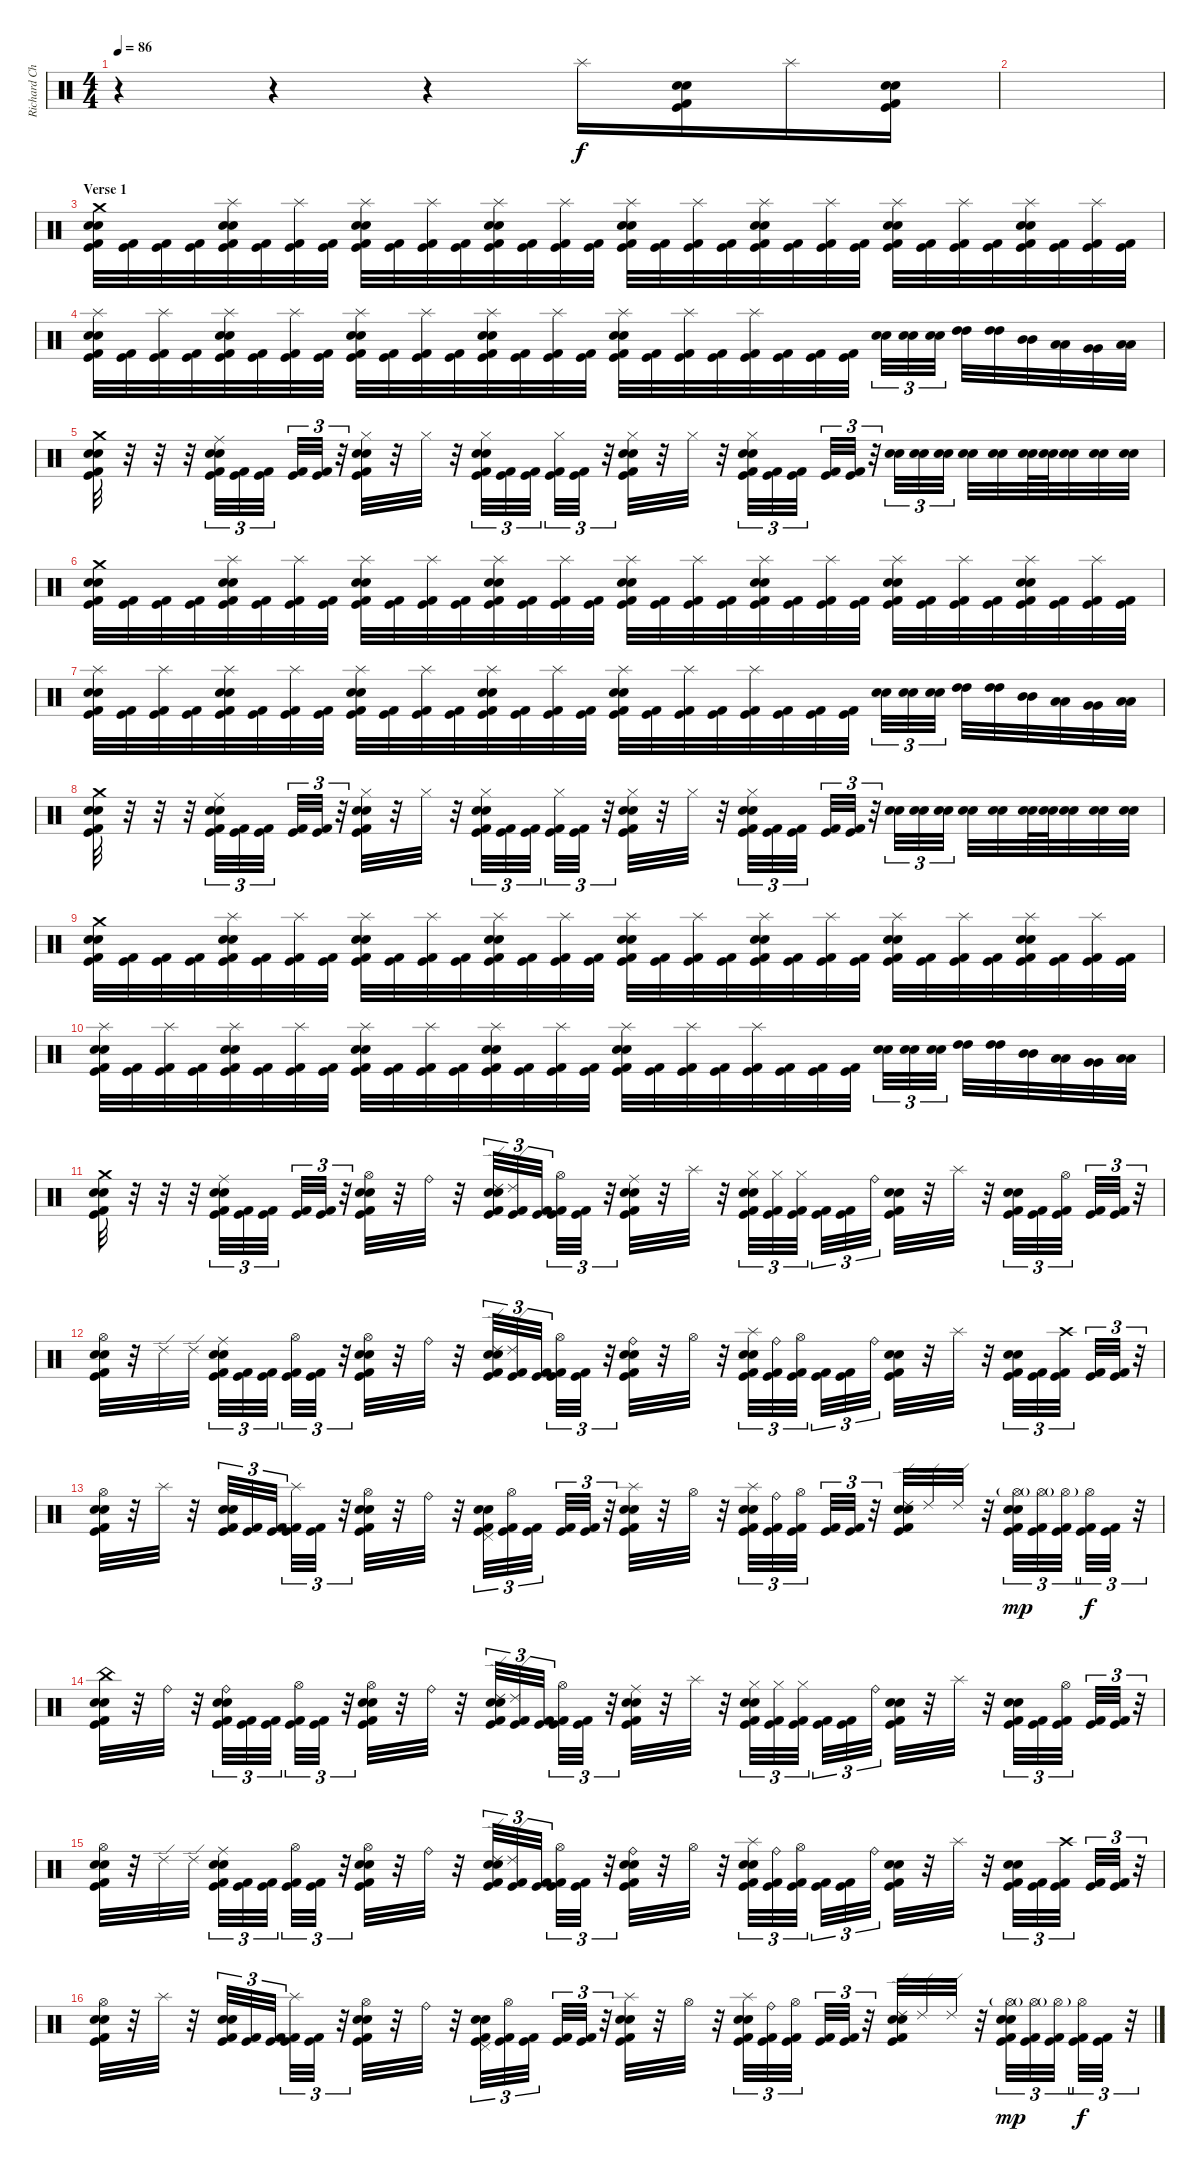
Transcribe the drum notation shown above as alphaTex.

\track ("Richard Christy" "Richard Ch") {instrument percussion}
\staff {score}
\articulation defaults
\ts (4 4)
\tempo 86
\clef neutral
\ks c
r.4{dy f} r.4 r.4 "Splash (hit)".16 ("Kick (hit)" "Snare (hit) 2" "Electric Snare (hit)" "Kick (hit) 2").16 "Splash (hit)".16 ("Kick (hit)" "Kick (hit) 2" "Electric Snare (hit)" "Snare (hit) 2").16 |
|
\section ("" "Verse 1")
("Crash medium (hit)" "Electric Snare (hit)" "Snare (hit) 2" "Kick (hit)" "Kick (hit) 2").32 ("Kick (hit)" "Kick (hit) 2").32 ("Kick (hit)" "Kick (hit) 2").32 ("Kick (hit)" "Kick (hit) 2").32 ("Splash (hit)" "Electric Snare (hit)" "Snare (hit) 2" "Kick (hit)" "Kick (hit) 2").32 ("Kick (hit)" "Kick (hit) 2").32 ("Splash (hit)" "Kick (hit)" "Kick (hit) 2").32 ("Kick (hit)" "Kick (hit) 2").32 ("Splash (hit)" "Electric Snare (hit)" "Snare (hit) 2" "Kick (hit)" "Kick (hit) 2").32 ("Kick (hit)" "Kick (hit) 2").32 ("Splash (hit)" "Kick (hit)" "Kick (hit) 2").32 ("Kick (hit)" "Kick (hit) 2").32 ("Splash (hit)" "Electric Snare (hit)" "Snare (hit) 2" "Kick (hit)" "Kick (hit) 2").32 ("Kick (hit)" "Kick (hit) 2").32 ("Splash (hit)" "Kick (hit)" "Kick (hit) 2").32 ("Kick (hit)" "Kick (hit) 2").32 ("Splash (hit)" "Electric Snare (hit)" "Snare (hit) 2" "Kick (hit)" "Kick (hit) 2").32 ("Kick (hit)" "Kick (hit) 2").32 ("Splash (hit)" "Kick (hit)" "Kick (hit) 2").32 ("Kick (hit)" "Kick (hit) 2").32 ("Splash (hit)" "Electric Snare (hit)" "Snare (hit) 2" "Kick (hit)" "Kick (hit) 2").32 ("Kick (hit)" "Kick (hit) 2").32 ("Splash (hit)" "Kick (hit)" "Kick (hit) 2").32 ("Kick (hit)" "Kick (hit) 2").32 ("Splash (hit)" "Electric Snare (hit)" "Snare (hit) 2" "Kick (hit)" "Kick (hit) 2").32 ("Kick (hit)" "Kick (hit) 2").32 ("Splash (hit)" "Kick (hit)" "Kick (hit) 2").32 ("Kick (hit)" "Kick (hit) 2").32 ("Splash (hit)" "Electric Snare (hit)" "Snare (hit) 2" "Kick (hit)" "Kick (hit) 2").32 ("Kick (hit)" "Kick (hit) 2").32 ("Splash (hit)" "Kick (hit)" "Kick (hit) 2").32 ("Kick (hit)" "Kick (hit) 2").32 |
("Splash (hit)" "Electric Snare (hit)" "Snare (hit) 2" "Kick (hit)" "Kick (hit) 2").32 ("Kick (hit)" "Kick (hit) 2").32 ("Splash (hit)" "Kick (hit)" "Kick (hit) 2").32 ("Kick (hit)" "Kick (hit) 2").32 ("Splash (hit)" "Electric Snare (hit)" "Snare (hit) 2" "Kick (hit)" "Kick (hit) 2").32 ("Kick (hit)" "Kick (hit) 2").32 ("Splash (hit)" "Kick (hit)" "Kick (hit) 2").32 ("Kick (hit)" "Kick (hit) 2").32 ("Splash (hit)" "Electric Snare (hit)" "Snare (hit) 2" "Kick (hit)" "Kick (hit) 2").32 ("Kick (hit)" "Kick (hit) 2").32 ("Splash (hit)" "Kick (hit)" "Kick (hit) 2").32 ("Kick (hit)" "Kick (hit) 2").32 ("Splash (hit)" "Electric Snare (hit)" "Snare (hit) 2" "Kick (hit)" "Kick (hit) 2").32 ("Kick (hit)" "Kick (hit) 2").32 ("Splash (hit)" "Kick (hit)" "Kick (hit) 2").32 ("Kick (hit)" "Kick (hit) 2").32 ("Splash (hit)" "Electric Snare (hit)" "Snare (hit) 2" "Kick (hit)" "Kick (hit) 2").32 ("Kick (hit)" "Kick (hit) 2").32 ("Splash (hit)" "Kick (hit)" "Kick (hit) 2").32 ("Kick (hit)" "Kick (hit) 2").32 ("Splash (hit)" "Kick (hit)" "Kick (hit) 2").32 ("Kick (hit)" "Kick (hit) 2").32 ("Kick (hit)" "Kick (hit) 2").32 ("Kick (hit)" "Kick (hit) 2").32 ("Snare (hit) 2" "Electric Snare (hit)").32{tu (3 2)} ("Snare (hit) 2" "Electric Snare (hit)").32{tu (3 2)} ("Snare (hit) 2" "Electric Snare (hit)").32{tu (3 2)} ("High Tom (hit)" "High Tom (hit)").32 ("High Tom (hit)" "High Tom (hit)").32 ("Mid Tom (hit)" "Mid Tom (hit)").32 ("Low Tom (hit)" "Low Tom (hit)").32 ("Very Low Tom (hit)" "Very Low Tom (hit)").32 ("Low Floor Tom (hit)" "Low Floor Tom (hit)").32 |
("Crash medium (hit)" "Electric Snare (hit)" "Snare (hit) 2" "Kick (hit) 2" "Kick (hit)").32 r.32 r.32 r.32 ("Ride (middle)" "Electric Snare (hit)" "Snare (hit) 2" "Kick (hit) 2" "Kick (hit)").32{tu (3 2)} ("Kick (hit) 2" "Kick (hit)").32{tu (3 2)} ("Kick (hit) 2" "Kick (hit)").32{tu (3 2)} ("Kick (hit) 2" "Kick (hit)").32{tu (3 2)} ("Kick (hit) 2" "Kick (hit)").32{tu (3 2)} r.32{tu (3 2)} ("Hi-Hat (closed)" "Electric Snare (hit)" "Snare (hit) 2" "Kick (hit)" "Kick (hit) 2").32 r.32 "Hi-Hat (closed)".32 r.32 ("Hi-Hat (closed)" "Electric Snare (hit)" "Snare (hit) 2" "Kick (hit) 2" "Kick (hit)").32{tu (3 2)} ("Kick (hit) 2" "Kick (hit)").32{tu (3 2)} ("Kick (hit) 2" "Kick (hit)").32{tu (3 2)} ("Hi-Hat (closed)" "Kick (hit) 2" "Kick (hit)").32{tu (3 2)} ("Kick (hit) 2" "Kick (hit)").32{tu (3 2)} r.32{tu (3 2)} ("Hi-Hat (closed)" "Electric Snare (hit)" "Snare (hit) 2" "Kick (hit) 2" "Kick (hit)").32 r.32 "Hi-Hat (closed)".32 r.32 ("Hi-Hat (closed)" "Electric Snare (hit)" "Snare (hit) 2" "Kick (hit)" "Kick (hit) 2").32{tu (3 2)} ("Kick (hit)" "Kick (hit) 2").32{tu (3 2)} ("Kick (hit)" "Kick (hit) 2").32{tu (3 2)} ("Kick (hit)" "Kick (hit) 2").32{tu (3 2)} ("Kick (hit)" "Kick (hit) 2").32{tu (3 2)} r.32{tu (3 2)} ("Electric Snare (hit)" "Snare (hit) 2").32{tu (3 2)} ("Electric Snare (hit)" "Snare (hit) 2").32{tu (3 2)} ("Electric Snare (hit)" "Snare (hit) 2").32{tu (3 2)} ("Electric Snare (hit)" "Snare (hit) 2").32 ("Electric Snare (hit)" "Snare (hit) 2").32 ("Electric Snare (hit)" "Snare (hit) 2").64 ("Electric Snare (hit)" "Snare (hit) 2").64 ("Electric Snare (hit)" "Snare (hit) 2").32 ("Electric Snare (hit)" "Snare (hit) 2").32 ("Electric Snare (hit)" "Snare (hit) 2").32 |
("Crash medium (hit)" "Electric Snare (hit)" "Snare (hit) 2" "Kick (hit)" "Kick (hit) 2").32 ("Kick (hit)" "Kick (hit) 2").32 ("Kick (hit)" "Kick (hit) 2").32 ("Kick (hit)" "Kick (hit) 2").32 ("Splash (hit)" "Electric Snare (hit)" "Snare (hit) 2" "Kick (hit)" "Kick (hit) 2").32 ("Kick (hit)" "Kick (hit) 2").32 ("Splash (hit)" "Kick (hit)" "Kick (hit) 2").32 ("Kick (hit)" "Kick (hit) 2").32 ("Splash (hit)" "Electric Snare (hit)" "Snare (hit) 2" "Kick (hit)" "Kick (hit) 2").32 ("Kick (hit)" "Kick (hit) 2").32 ("Splash (hit)" "Kick (hit)" "Kick (hit) 2").32 ("Kick (hit)" "Kick (hit) 2").32 ("Splash (hit)" "Electric Snare (hit)" "Snare (hit) 2" "Kick (hit)" "Kick (hit) 2").32 ("Kick (hit)" "Kick (hit) 2").32 ("Splash (hit)" "Kick (hit)" "Kick (hit) 2").32 ("Kick (hit)" "Kick (hit) 2").32 ("Splash (hit)" "Electric Snare (hit)" "Snare (hit) 2" "Kick (hit)" "Kick (hit) 2").32 ("Kick (hit)" "Kick (hit) 2").32 ("Splash (hit)" "Kick (hit)" "Kick (hit) 2").32 ("Kick (hit)" "Kick (hit) 2").32 ("Splash (hit)" "Electric Snare (hit)" "Snare (hit) 2" "Kick (hit)" "Kick (hit) 2").32 ("Kick (hit)" "Kick (hit) 2").32 ("Splash (hit)" "Kick (hit)" "Kick (hit) 2").32 ("Kick (hit)" "Kick (hit) 2").32 ("Splash (hit)" "Electric Snare (hit)" "Snare (hit) 2" "Kick (hit)" "Kick (hit) 2").32 ("Kick (hit)" "Kick (hit) 2").32 ("Splash (hit)" "Kick (hit)" "Kick (hit) 2").32 ("Kick (hit)" "Kick (hit) 2").32 ("Splash (hit)" "Electric Snare (hit)" "Snare (hit) 2" "Kick (hit)" "Kick (hit) 2").32 ("Kick (hit)" "Kick (hit) 2").32 ("Splash (hit)" "Kick (hit)" "Kick (hit) 2").32 ("Kick (hit)" "Kick (hit) 2").32 |
("Splash (hit)" "Electric Snare (hit)" "Snare (hit) 2" "Kick (hit)" "Kick (hit) 2").32 ("Kick (hit)" "Kick (hit) 2").32 ("Splash (hit)" "Kick (hit)" "Kick (hit) 2").32 ("Kick (hit)" "Kick (hit) 2").32 ("Splash (hit)" "Electric Snare (hit)" "Snare (hit) 2" "Kick (hit)" "Kick (hit) 2").32 ("Kick (hit)" "Kick (hit) 2").32 ("Splash (hit)" "Kick (hit)" "Kick (hit) 2").32 ("Kick (hit)" "Kick (hit) 2").32 ("Splash (hit)" "Electric Snare (hit)" "Snare (hit) 2" "Kick (hit)" "Kick (hit) 2").32 ("Kick (hit)" "Kick (hit) 2").32 ("Splash (hit)" "Kick (hit)" "Kick (hit) 2").32 ("Kick (hit)" "Kick (hit) 2").32 ("Splash (hit)" "Electric Snare (hit)" "Snare (hit) 2" "Kick (hit)" "Kick (hit) 2").32 ("Kick (hit)" "Kick (hit) 2").32 ("Splash (hit)" "Kick (hit)" "Kick (hit) 2").32 ("Kick (hit)" "Kick (hit) 2").32 ("Splash (hit)" "Electric Snare (hit)" "Snare (hit) 2" "Kick (hit)" "Kick (hit) 2").32 ("Kick (hit)" "Kick (hit) 2").32 ("Splash (hit)" "Kick (hit)" "Kick (hit) 2").32 ("Kick (hit)" "Kick (hit) 2").32 ("Splash (hit)" "Kick (hit)" "Kick (hit) 2").32 ("Kick (hit)" "Kick (hit) 2").32 ("Kick (hit)" "Kick (hit) 2").32 ("Kick (hit)" "Kick (hit) 2").32 ("Snare (hit) 2" "Electric Snare (hit)").32{tu (3 2)} ("Snare (hit) 2" "Electric Snare (hit)").32{tu (3 2)} ("Snare (hit) 2" "Electric Snare (hit)").32{tu (3 2)} ("High Tom (hit)" "High Tom (hit)").32 ("High Tom (hit)" "High Tom (hit)").32 ("Mid Tom (hit)" "Mid Tom (hit)").32 ("Low Tom (hit)" "Low Tom (hit)").32 ("Very Low Tom (hit)" "Very Low Tom (hit)").32 ("Low Floor Tom (hit)" "Low Floor Tom (hit)").32 |
("Crash medium (hit)" "Electric Snare (hit)" "Snare (hit) 2" "Kick (hit) 2" "Kick (hit)").32 r.32 r.32 r.32 ("Ride (middle)" "Electric Snare (hit)" "Snare (hit) 2" "Kick (hit) 2" "Kick (hit)").32{tu (3 2)} ("Kick (hit) 2" "Kick (hit)").32{tu (3 2)} ("Kick (hit) 2" "Kick (hit)").32{tu (3 2)} ("Kick (hit) 2" "Kick (hit)").32{tu (3 2)} ("Kick (hit) 2" "Kick (hit)").32{tu (3 2)} r.32{tu (3 2)} ("Hi-Hat (closed)" "Electric Snare (hit)" "Snare (hit) 2" "Kick (hit)" "Kick (hit) 2").32 r.32 "Hi-Hat (closed)".32 r.32 ("Hi-Hat (closed)" "Electric Snare (hit)" "Snare (hit) 2" "Kick (hit) 2" "Kick (hit)").32{tu (3 2)} ("Kick (hit) 2" "Kick (hit)").32{tu (3 2)} ("Kick (hit) 2" "Kick (hit)").32{tu (3 2)} ("Hi-Hat (closed)" "Kick (hit) 2" "Kick (hit)").32{tu (3 2)} ("Kick (hit) 2" "Kick (hit)").32{tu (3 2)} r.32{tu (3 2)} ("Hi-Hat (closed)" "Electric Snare (hit)" "Snare (hit) 2" "Kick (hit) 2" "Kick (hit)").32 r.32 "Hi-Hat (closed)".32 r.32 ("Hi-Hat (closed)" "Electric Snare (hit)" "Snare (hit) 2" "Kick (hit)" "Kick (hit) 2").32{tu (3 2)} ("Kick (hit)" "Kick (hit) 2").32{tu (3 2)} ("Kick (hit)" "Kick (hit) 2").32{tu (3 2)} ("Kick (hit)" "Kick (hit) 2").32{tu (3 2)} ("Kick (hit)" "Kick (hit) 2").32{tu (3 2)} r.32{tu (3 2)} ("Electric Snare (hit)" "Snare (hit) 2").32{tu (3 2)} ("Electric Snare (hit)" "Snare (hit) 2").32{tu (3 2)} ("Electric Snare (hit)" "Snare (hit) 2").32{tu (3 2)} ("Electric Snare (hit)" "Snare (hit) 2").32 ("Electric Snare (hit)" "Snare (hit) 2").32 ("Electric Snare (hit)" "Snare (hit) 2").64 ("Electric Snare (hit)" "Snare (hit) 2").64 ("Electric Snare (hit)" "Snare (hit) 2").32 ("Electric Snare (hit)" "Snare (hit) 2").32 ("Electric Snare (hit)" "Snare (hit) 2").32 |
("Crash medium (hit)" "Electric Snare (hit)" "Snare (hit) 2" "Kick (hit)" "Kick (hit) 2").32 ("Kick (hit)" "Kick (hit) 2").32 ("Kick (hit)" "Kick (hit) 2").32 ("Kick (hit)" "Kick (hit) 2").32 ("Splash (hit)" "Electric Snare (hit)" "Snare (hit) 2" "Kick (hit)" "Kick (hit) 2").32 ("Kick (hit)" "Kick (hit) 2").32 ("Splash (hit)" "Kick (hit)" "Kick (hit) 2").32 ("Kick (hit)" "Kick (hit) 2").32 ("Splash (hit)" "Electric Snare (hit)" "Snare (hit) 2" "Kick (hit)" "Kick (hit) 2").32 ("Kick (hit)" "Kick (hit) 2").32 ("Splash (hit)" "Kick (hit)" "Kick (hit) 2").32 ("Kick (hit)" "Kick (hit) 2").32 ("Splash (hit)" "Electric Snare (hit)" "Snare (hit) 2" "Kick (hit)" "Kick (hit) 2").32 ("Kick (hit)" "Kick (hit) 2").32 ("Splash (hit)" "Kick (hit)" "Kick (hit) 2").32 ("Kick (hit)" "Kick (hit) 2").32 ("Splash (hit)" "Electric Snare (hit)" "Snare (hit) 2" "Kick (hit)" "Kick (hit) 2").32 ("Kick (hit)" "Kick (hit) 2").32 ("Splash (hit)" "Kick (hit)" "Kick (hit) 2").32 ("Kick (hit)" "Kick (hit) 2").32 ("Splash (hit)" "Electric Snare (hit)" "Snare (hit) 2" "Kick (hit)" "Kick (hit) 2").32 ("Kick (hit)" "Kick (hit) 2").32 ("Splash (hit)" "Kick (hit)" "Kick (hit) 2").32 ("Kick (hit)" "Kick (hit) 2").32 ("Splash (hit)" "Electric Snare (hit)" "Snare (hit) 2" "Kick (hit)" "Kick (hit) 2").32 ("Kick (hit)" "Kick (hit) 2").32 ("Splash (hit)" "Kick (hit)" "Kick (hit) 2").32 ("Kick (hit)" "Kick (hit) 2").32 ("Splash (hit)" "Electric Snare (hit)" "Snare (hit) 2" "Kick (hit)" "Kick (hit) 2").32 ("Kick (hit)" "Kick (hit) 2").32 ("Splash (hit)" "Kick (hit)" "Kick (hit) 2").32 ("Kick (hit)" "Kick (hit) 2").32 |
("Splash (hit)" "Electric Snare (hit)" "Snare (hit) 2" "Kick (hit)" "Kick (hit) 2").32 ("Kick (hit)" "Kick (hit) 2").32 ("Splash (hit)" "Kick (hit)" "Kick (hit) 2").32 ("Kick (hit)" "Kick (hit) 2").32 ("Splash (hit)" "Electric Snare (hit)" "Snare (hit) 2" "Kick (hit)" "Kick (hit) 2").32 ("Kick (hit)" "Kick (hit) 2").32 ("Splash (hit)" "Kick (hit)" "Kick (hit) 2").32 ("Kick (hit)" "Kick (hit) 2").32 ("Splash (hit)" "Electric Snare (hit)" "Snare (hit) 2" "Kick (hit)" "Kick (hit) 2").32 ("Kick (hit)" "Kick (hit) 2").32 ("Splash (hit)" "Kick (hit)" "Kick (hit) 2").32 ("Kick (hit)" "Kick (hit) 2").32 ("Splash (hit)" "Electric Snare (hit)" "Snare (hit) 2" "Kick (hit)" "Kick (hit) 2").32 ("Kick (hit)" "Kick (hit) 2").32 ("Splash (hit)" "Kick (hit)" "Kick (hit) 2").32 ("Kick (hit)" "Kick (hit) 2").32 ("Splash (hit)" "Electric Snare (hit)" "Snare (hit) 2" "Kick (hit)" "Kick (hit) 2").32 ("Kick (hit)" "Kick (hit) 2").32 ("Splash (hit)" "Kick (hit)" "Kick (hit) 2").32 ("Kick (hit)" "Kick (hit) 2").32 ("Splash (hit)" "Kick (hit)" "Kick (hit) 2").32 ("Kick (hit)" "Kick (hit) 2").32 ("Kick (hit)" "Kick (hit) 2").32 ("Kick (hit)" "Kick (hit) 2").32 ("Snare (hit) 2" "Electric Snare (hit)").32{tu (3 2)} ("Snare (hit) 2" "Electric Snare (hit)").32{tu (3 2)} ("Snare (hit) 2" "Electric Snare (hit)").32{tu (3 2)} ("High Tom (hit)" "High Tom (hit)").32 ("High Tom (hit)" "High Tom (hit)").32 ("Mid Tom (hit)" "Mid Tom (hit)").32 ("Low Tom (hit)" "Low Tom (hit)").32 ("Very Low Tom (hit)" "Very Low Tom (hit)").32 ("Low Floor Tom (hit)" "Low Floor Tom (hit)").32 |
("Crash medium (hit)" "Electric Snare (hit)" "Snare (hit) 2" "Kick (hit) 2" "Kick (hit)").32 r.32 r.32 r.32 ("Ride (middle)" "Electric Snare (hit)" "Snare (hit) 2" "Kick (hit) 2" "Kick (hit)").32{tu (3 2)} ("Kick (hit) 2" "Kick (hit)").32{tu (3 2)} ("Kick (hit) 2" "Kick (hit)").32{tu (3 2)} ("Kick (hit) 2" "Kick (hit)").32{tu (3 2)} ("Kick (hit) 2" "Kick (hit)").32{tu (3 2)} r.32{tu (3 2)} ("Hi-Hat (open)" "Electric Snare (hit)" "Snare (hit) 2" "Kick (hit) 2" "Kick (hit)").32 r.32 "Ride (bell)".32 r.32 ("Ride (edge) 2" "Electric Snare (hit)" "Snare (hit) 2" "Kick (hit) 2" "Kick (hit)").32{tu (3 2)} ("Ride (edge) 2" "Kick (hit) 2" "Kick (hit)").32{tu (3 2)} ("Kick (hit) 2" "Kick (hit)").32{tu (3 2)} ("Hi-Hat (open)" "Kick (hit) 2" "Kick (hit)").32{tu (3 2)} ("Kick (hit) 2" "Kick (hit)").32{tu (3 2)} r.32{tu (3 2)} ("Ride (middle)" "Electric Snare (hit)" "Snare (hit) 2" "Kick (hit) 2" "Kick (hit)").32 r.32 "Splash (hit)".32 r.32 ("Hi-Hat (closed)" "Electric Snare (hit)" "Snare (hit) 2" "Kick (hit) 2" "Kick (hit)").32{tu (3 2)} ("Hi-Hat (closed)" "Kick (hit) 2" "Kick (hit)").32{tu (3 2)} ("Hi-Hat (closed)" "Kick (hit) 2" "Kick (hit)").32{tu (3 2)} ("Kick (hit) 2" "Kick (hit)").32{tu (3 2)} ("Kick (hit) 2" "Kick (hit)").32{tu (3 2)} "Ride (bell)".32{tu (3 2)} ("Electric Snare (hit)" "Snare (hit) 2" "Kick (hit) 2" "Kick (hit)").32 r.32 "Splash (hit)".32 r.32 ("Electric Snare (hit)" "Snare (hit) 2" "Kick (hit) 2" "Kick (hit)").32{tu (3 2)} ("Kick (hit) 2" "Kick (hit)").32{tu (3 2)} ("Hi-Hat (open)" "Kick (hit) 2" "Kick (hit)").32{tu (3 2)} ("Kick (hit) 2" "Kick (hit)").32{tu (3 2)} ("Kick (hit) 2" "Kick (hit)").32{tu (3 2)} r.32{tu (3 2)} |
("Hi-Hat (open)" "Electric Snare (hit)" "Snare (hit) 2" "Kick (hit) 2" "Kick (hit)").32 r.32 "Ride (edge) 2".32 "Ride (edge) 2".32 ("Ride (middle)" "Electric Snare (hit)" "Snare (hit) 2" "Kick (hit) 2" "Kick (hit)").32{tu (3 2)} ("Kick (hit) 2" "Kick (hit)").32{tu (3 2)} ("Kick (hit) 2" "Kick (hit)").32{tu (3 2)} ("Hi-Hat (open)" "Kick (hit) 2" "Kick (hit)").32{tu (3 2)} ("Kick (hit) 2" "Kick (hit)").32{tu (3 2)} r.32{tu (3 2)} ("Hi-Hat (open)" "Electric Snare (hit)" "Snare (hit) 2" "Kick (hit) 2" "Kick (hit)").32 r.32 "Ride (bell)".32 r.32 ("Ride (edge) 2" "Electric Snare (hit)" "Snare (hit) 2" "Kick (hit) 2" "Kick (hit)").32{tu (3 2)} ("Ride (edge) 2" "Kick (hit) 2" "Kick (hit)").32{tu (3 2)} ("Kick (hit) 2" "Kick (hit)").32{tu (3 2)} ("Hi-Hat (open)" "Kick (hit) 2" "Kick (hit)").32{tu (3 2)} ("Kick (hit) 2" "Kick (hit)").32{tu (3 2)} r.32{tu (3 2)} ("Ride (bell)" "Electric Snare (hit)" "Snare (hit) 2" "Kick (hit) 2" "Kick (hit)").32 r.32 "Hi-Hat (open)".32 r.32 ("Splash (hit)" "Electric Snare (hit)" "Snare (hit) 2" "Kick (hit) 2" "Kick (hit)").32{tu (3 2)} ("Ride (bell)" "Kick (hit) 2" "Kick (hit)").32{tu (3 2)} ("Hi-Hat (open)" "Kick (hit) 2" "Kick (hit)").32{tu (3 2)} ("Kick (hit) 2" "Kick (hit)").32{tu (3 2)} ("Kick (hit) 2" "Kick (hit)").32{tu (3 2)} "Ride (bell)".32{tu (3 2)} ("Electric Snare (hit)" "Snare (hit) 2" "Kick (hit) 2" "Kick (hit)").32 r.32 "Splash (hit)".32 r.32 ("Electric Snare (hit)" "Snare (hit) 2" "Kick (hit) 2" "Kick (hit)").32{tu (3 2)} ("Kick (hit) 2" "Kick (hit)").32{tu (3 2)} ("Crash high (hit)" "Kick (hit) 2" "Kick (hit)").32{tu (3 2)} ("Kick (hit) 2" "Kick (hit)").32{tu (3 2)} ("Kick (hit) 2" "Kick (hit)").32{tu (3 2)} r.32{tu (3 2)} |
("Hi-Hat (open)" "Electric Snare (hit)" "Snare (hit) 2" "Kick (hit) 2" "Kick (hit)").32 r.32 "Splash (hit)".32 r.32 ("Electric Snare (hit)" "Snare (hit) 2" "Kick (hit) 2" "Kick (hit)").32{tu (3 2)} ("Kick (hit) 2" "Kick (hit)").32{tu (3 2)} ("Kick (hit) 2" "Kick (hit)").32{tu (3 2)} ("Splash (hit)" "Kick (hit) 2" "Kick (hit)").32{tu (3 2)} ("Kick (hit) 2" "Kick (hit)").32{tu (3 2)} r.32{tu (3 2)} ("Hi-Hat (open)" "Electric Snare (hit)" "Snare (hit) 2" "Kick (hit) 2" "Kick (hit)").32 r.32 "Ride (bell)".32 r.32 ("Pedal Hi-Hat (hit)" "Electric Snare (hit)" "Snare (hit) 2" "Kick (hit) 2" "Kick (hit)").32{tu (3 2)} ("Hi-Hat (open)" "Kick (hit) 2" "Kick (hit)").32{tu (3 2)} ("Kick (hit) 2" "Kick (hit)").32{tu (3 2)} ("Kick (hit) 2" "Kick (hit)").32{tu (3 2)} ("Kick (hit) 2" "Kick (hit)").32{tu (3 2)} r.32{tu (3 2)} ("Splash (hit)" "Electric Snare (hit)" "Snare (hit) 2" "Kick (hit) 2" "Kick (hit)").32 r.32 "Hi-Hat (open)".32 r.32 ("Splash (hit)" "Electric Snare (hit)" "Snare (hit) 2" "Kick (hit) 2" "Kick (hit)").32{tu (3 2)} ("Ride (bell)" "Kick (hit) 2" "Kick (hit)").32{tu (3 2)} ("Hi-Hat (open)" "Kick (hit) 2" "Kick (hit)").32{tu (3 2)} ("Kick (hit) 2" "Kick (hit)").32{tu (3 2)} ("Kick (hit) 2" "Kick (hit)").32{tu (3 2)} r.32{tu (3 2)} ("Ride (edge) 2" "Electric Snare (hit)" "Snare (hit) 2" "Kick (hit) 2" "Kick (hit)").32 "Ride (edge) 2".32 "Ride (edge) 2".32 r.32 ("Hi-Hat (open)"{g} "Electric Snare (hit)" "Snare (hit) 2" "Kick (hit) 2" "Kick (hit)").32{tu (3 2) dy mp} ("Hi-Hat (open)"{g} "Kick (hit) 2" "Kick (hit)").32{tu (3 2)} ("Hi-Hat (open)"{g} "Kick (hit) 2" "Kick (hit)").32{tu (3 2)} ("Hi-Hat (open)" "Kick (hit) 2" "Kick (hit)").32{tu (3 2) dy f} ("Kick (hit) 2" "Kick (hit)").32{tu (3 2)} r.32{tu (3 2)} |
("China (hit)" "Electric Snare (hit)" "Snare (hit) 2" "Kick (hit) 2" "Kick (hit)").32 r.32 "Ride (bell)".32 r.32 ("Ride (bell)" "Electric Snare (hit)" "Snare (hit) 2" "Kick (hit) 2" "Kick (hit)").32{tu (3 2)} ("Kick (hit) 2" "Kick (hit)").32{tu (3 2)} ("Kick (hit) 2" "Kick (hit)").32{tu (3 2)} ("Hi-Hat (open)" "Kick (hit) 2" "Kick (hit)").32{tu (3 2)} ("Kick (hit) 2" "Kick (hit)").32{tu (3 2)} r.32{tu (3 2)} ("Hi-Hat (open)" "Electric Snare (hit)" "Snare (hit) 2" "Kick (hit) 2" "Kick (hit)").32 r.32 "Ride (bell)".32 r.32 ("Ride (edge) 2" "Electric Snare (hit)" "Snare (hit) 2" "Kick (hit) 2" "Kick (hit)").32{tu (3 2)} ("Ride (edge) 2" "Kick (hit) 2" "Kick (hit)").32{tu (3 2)} ("Kick (hit) 2" "Kick (hit)").32{tu (3 2)} ("Hi-Hat (open)" "Kick (hit) 2" "Kick (hit)").32{tu (3 2)} ("Kick (hit) 2" "Kick (hit)").32{tu (3 2)} r.32{tu (3 2)} ("Ride (middle)" "Electric Snare (hit)" "Snare (hit) 2" "Kick (hit) 2" "Kick (hit)").32 r.32 "Splash (hit)".32 r.32 ("Hi-Hat (closed)" "Electric Snare (hit)" "Snare (hit) 2" "Kick (hit) 2" "Kick (hit)").32{tu (3 2)} ("Hi-Hat (closed)" "Kick (hit) 2" "Kick (hit)").32{tu (3 2)} ("Hi-Hat (closed)" "Kick (hit) 2" "Kick (hit)").32{tu (3 2)} ("Kick (hit) 2" "Kick (hit)").32{tu (3 2)} ("Kick (hit) 2" "Kick (hit)").32{tu (3 2)} "Ride (bell)".32{tu (3 2)} ("Electric Snare (hit)" "Snare (hit) 2" "Kick (hit) 2" "Kick (hit)").32 r.32 "Splash (hit)".32 r.32 ("Electric Snare (hit)" "Snare (hit) 2" "Kick (hit) 2" "Kick (hit)").32{tu (3 2)} ("Kick (hit) 2" "Kick (hit)").32{tu (3 2)} ("Hi-Hat (open)" "Kick (hit) 2" "Kick (hit)").32{tu (3 2)} ("Kick (hit) 2" "Kick (hit)").32{tu (3 2)} ("Kick (hit) 2" "Kick (hit)").32{tu (3 2)} r.32{tu (3 2)} |
("Hi-Hat (open)" "Electric Snare (hit)" "Snare (hit) 2" "Kick (hit) 2" "Kick (hit)").32 r.32 "Ride (edge) 2".32 "Ride (edge) 2".32 ("Ride (middle)" "Electric Snare (hit)" "Snare (hit) 2" "Kick (hit) 2" "Kick (hit)").32{tu (3 2)} ("Kick (hit) 2" "Kick (hit)").32{tu (3 2)} ("Kick (hit) 2" "Kick (hit)").32{tu (3 2)} ("Hi-Hat (open)" "Kick (hit) 2" "Kick (hit)").32{tu (3 2)} ("Kick (hit) 2" "Kick (hit)").32{tu (3 2)} r.32{tu (3 2)} ("Hi-Hat (open)" "Electric Snare (hit)" "Snare (hit) 2" "Kick (hit) 2" "Kick (hit)").32 r.32 "Ride (bell)".32 r.32 ("Ride (edge) 2" "Electric Snare (hit)" "Snare (hit) 2" "Kick (hit) 2" "Kick (hit)").32{tu (3 2)} ("Ride (edge) 2" "Kick (hit) 2" "Kick (hit)").32{tu (3 2)} ("Kick (hit) 2" "Kick (hit)").32{tu (3 2)} ("Hi-Hat (open)" "Kick (hit) 2" "Kick (hit)").32{tu (3 2)} ("Kick (hit) 2" "Kick (hit)").32{tu (3 2)} r.32{tu (3 2)} ("Ride (bell)" "Electric Snare (hit)" "Snare (hit) 2" "Kick (hit) 2" "Kick (hit)").32 r.32 "Hi-Hat (open)".32 r.32 ("Splash (hit)" "Electric Snare (hit)" "Snare (hit) 2" "Kick (hit) 2" "Kick (hit)").32{tu (3 2)} ("Ride (bell)" "Kick (hit) 2" "Kick (hit)").32{tu (3 2)} ("Hi-Hat (open)" "Kick (hit) 2" "Kick (hit)").32{tu (3 2)} ("Kick (hit) 2" "Kick (hit)").32{tu (3 2)} ("Kick (hit) 2" "Kick (hit)").32{tu (3 2)} "Ride (bell)".32{tu (3 2)} ("Electric Snare (hit)" "Snare (hit) 2" "Kick (hit) 2" "Kick (hit)").32 r.32 "Splash (hit)".32 r.32 ("Electric Snare (hit)" "Snare (hit) 2" "Kick (hit) 2" "Kick (hit)").32{tu (3 2)} ("Kick (hit) 2" "Kick (hit)").32{tu (3 2)} ("Crash high (hit)" "Kick (hit) 2" "Kick (hit)").32{tu (3 2)} ("Kick (hit) 2" "Kick (hit)").32{tu (3 2)} ("Kick (hit) 2" "Kick (hit)").32{tu (3 2)} r.32{tu (3 2)} |
("Hi-Hat (open)" "Electric Snare (hit)" "Snare (hit) 2" "Kick (hit) 2" "Kick (hit)").32 r.32 "Splash (hit)".32 r.32 ("Electric Snare (hit)" "Snare (hit) 2" "Kick (hit) 2" "Kick (hit)").32{tu (3 2)} ("Kick (hit) 2" "Kick (hit)").32{tu (3 2)} ("Kick (hit) 2" "Kick (hit)").32{tu (3 2)} ("Splash (hit)" "Kick (hit) 2" "Kick (hit)").32{tu (3 2)} ("Kick (hit) 2" "Kick (hit)").32{tu (3 2)} r.32{tu (3 2)} ("Hi-Hat (open)" "Electric Snare (hit)" "Snare (hit) 2" "Kick (hit) 2" "Kick (hit)").32 r.32 "Ride (bell)".32 r.32 ("Pedal Hi-Hat (hit)" "Electric Snare (hit)" "Snare (hit) 2" "Kick (hit) 2" "Kick (hit)").32{tu (3 2)} ("Hi-Hat (open)" "Kick (hit) 2" "Kick (hit)").32{tu (3 2)} ("Kick (hit) 2" "Kick (hit)").32{tu (3 2)} ("Kick (hit) 2" "Kick (hit)").32{tu (3 2)} ("Kick (hit) 2" "Kick (hit)").32{tu (3 2)} r.32{tu (3 2)} ("Splash (hit)" "Electric Snare (hit)" "Snare (hit) 2" "Kick (hit) 2" "Kick (hit)").32 r.32 "Hi-Hat (open)".32 r.32 ("Splash (hit)" "Electric Snare (hit)" "Snare (hit) 2" "Kick (hit) 2" "Kick (hit)").32{tu (3 2)} ("Ride (bell)" "Kick (hit) 2" "Kick (hit)").32{tu (3 2)} ("Hi-Hat (open)" "Kick (hit) 2" "Kick (hit)").32{tu (3 2)} ("Kick (hit) 2" "Kick (hit)").32{tu (3 2)} ("Kick (hit) 2" "Kick (hit)").32{tu (3 2)} r.32{tu (3 2)} ("Ride (edge) 2" "Electric Snare (hit)" "Snare (hit) 2" "Kick (hit) 2" "Kick (hit)").32 "Ride (edge) 2".32 "Ride (edge) 2".32 r.32 ("Hi-Hat (open)"{g} "Electric Snare (hit)" "Snare (hit) 2" "Kick (hit) 2" "Kick (hit)").32{tu (3 2) dy mp} ("Hi-Hat (open)"{g} "Kick (hit) 2" "Kick (hit)").32{tu (3 2)} ("Hi-Hat (open)"{g} "Kick (hit) 2" "Kick (hit)").32{tu (3 2)} ("Hi-Hat (open)" "Kick (hit) 2" "Kick (hit)").32{tu (3 2) dy f} ("Kick (hit) 2" "Kick (hit)").32{tu (3 2)} r.32{tu (3 2)}
